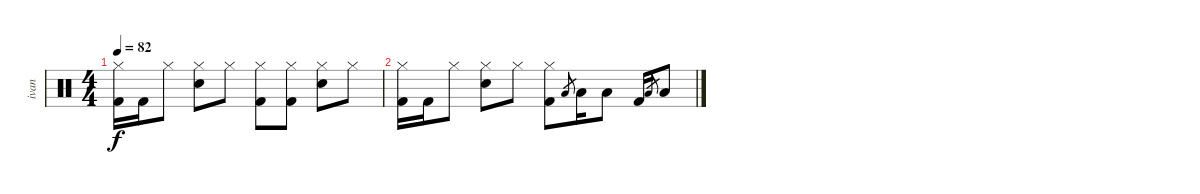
\track ("ivan" "ivan") {instrument percussion}
\staff {score}
\articulation defaults
\ts (4 4)
\tempo 82
\clef neutral
\ks c
("Hi-Hat (closed)" "Kick (hit) 2").16{dy f} "Kick (hit) 2".16 "Hi-Hat (closed)".8 ("Hi-Hat (closed)" "Electric Snare (hit)").8 "Hi-Hat (closed)".8 ("Hi-Hat (closed)" "Kick (hit) 2").8 ("Hi-Hat (closed)" "Kick (hit) 2").8 ("Hi-Hat (closed)" "Electric Snare (hit)").8 "Hi-Hat (closed)".8 |
("Hi-Hat (closed)" "Kick (hit) 2").16 "Kick (hit) 2".16 "Hi-Hat (closed)".8 ("Hi-Hat (closed)" "Electric Snare (hit)").8 "Hi-Hat (closed)".8 ("Hi-Hat (closed)" "Kick (hit) 2").8 "Low Tom (hit)".8{gr} "Low Tom (hit)".16 "Low Tom (hit)".8 "Kick (hit) 2".16 "Low Tom (hit)".8{gr} "Low Tom (hit)".8
